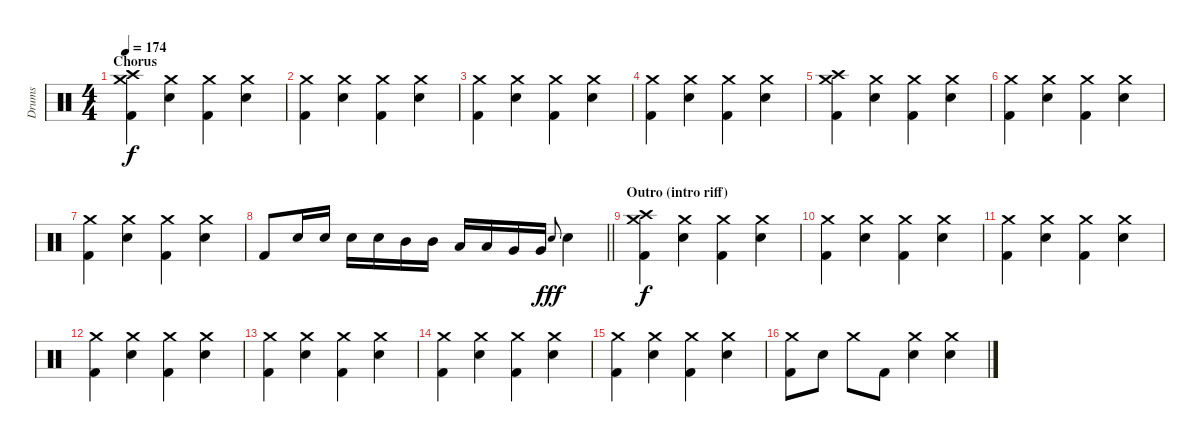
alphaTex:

\track ("Drums" "Drums") {instrument percussion}
\staff {score}
\articulation defaults
\ts (4 4)
\section ("" "Chorus")
\tempo 174
\clef neutral
\ks c
("Crash medium (hit)" "Crash high (hit)" "Kick (hit) 2").4{dy f} ("Crash medium (hit)" "Electric Snare (hit)").4 ("Crash medium (hit)" "Kick (hit) 2").4 ("Crash medium (hit)" "Electric Snare (hit)").4 |
("Crash medium (hit)" "Kick (hit) 2").4 ("Crash medium (hit)" "Electric Snare (hit)").4 ("Crash medium (hit)" "Kick (hit) 2").4 ("Crash medium (hit)" "Electric Snare (hit)").4 |
("Crash medium (hit)" "Kick (hit) 2").4 ("Crash medium (hit)" "Electric Snare (hit)").4 ("Crash medium (hit)" "Kick (hit) 2").4 ("Crash medium (hit)" "Electric Snare (hit)").4 |
("Crash medium (hit)" "Kick (hit) 2").4 ("Crash medium (hit)" "Electric Snare (hit)").4 ("Crash medium (hit)" "Kick (hit) 2").4 ("Crash medium (hit)" "Electric Snare (hit)").4 |
("Crash medium (hit)" "Crash high (hit)" "Kick (hit) 2").4 ("Crash medium (hit)" "Electric Snare (hit)").4 ("Crash medium (hit)" "Kick (hit) 2").4 ("Crash medium (hit)" "Electric Snare (hit)").4 |
("Crash medium (hit)" "Kick (hit) 2").4 ("Crash medium (hit)" "Electric Snare (hit)").4 ("Crash medium (hit)" "Kick (hit) 2").4 ("Crash medium (hit)" "Electric Snare (hit)").4 |
("Crash medium (hit)" "Kick (hit) 2").4 ("Crash medium (hit)" "Electric Snare (hit)").4 ("Crash medium (hit)" "Kick (hit) 2").4 ("Crash medium (hit)" "Electric Snare (hit)").4 |
\barLineRight lightlight "Kick (hit) 2".8 "Electric Snare (hit)".16 "Electric Snare (hit)".16 "Electric Snare (hit)".16 "Electric Snare (hit)".16 "Mid Tom (hit)".16 "Mid Tom (hit)".16 "Low Tom (hit)".16 "Low Tom (hit)".16 "Very Low Tom (hit)".16 "Very Low Tom (hit)".16 "Electric Snare (hit)".8{gr onbeat dy fff} "Electric Snare (hit)".4
|
\section ("" "Outro (intro riff)")
("Crash medium (hit)" "Crash high (hit)" "Kick (hit) 2").4{dy f} ("Crash medium (hit)" "Electric Snare (hit)").4 ("Crash medium (hit)" "Kick (hit) 2").4 ("Crash medium (hit)" "Electric Snare (hit)").4 |
("Crash medium (hit)" "Kick (hit) 2").4 ("Crash medium (hit)" "Electric Snare (hit)").4 ("Crash medium (hit)" "Kick (hit) 2").4 ("Crash medium (hit)" "Electric Snare (hit)").4 |
("Crash medium (hit)" "Kick (hit) 2").4 ("Crash medium (hit)" "Electric Snare (hit)").4 ("Crash medium (hit)" "Kick (hit) 2").4 ("Crash medium (hit)" "Electric Snare (hit)").4 |
("Crash medium (hit)" "Kick (hit) 2").4 ("Crash medium (hit)" "Electric Snare (hit)").4 ("Crash medium (hit)" "Kick (hit) 2").4 ("Crash medium (hit)" "Electric Snare (hit)").4 |
("Crash medium (hit)" "Kick (hit) 2").4 ("Crash medium (hit)" "Electric Snare (hit)").4 ("Crash medium (hit)" "Kick (hit) 2").4 ("Crash medium (hit)" "Electric Snare (hit)").4 |
("Crash medium (hit)" "Kick (hit) 2").4 ("Crash medium (hit)" "Electric Snare (hit)").4 ("Crash medium (hit)" "Kick (hit) 2").4 ("Crash medium (hit)" "Electric Snare (hit)").4 |
("Crash medium (hit)" "Kick (hit) 2").4 ("Crash medium (hit)" "Electric Snare (hit)").4 ("Crash medium (hit)" "Kick (hit) 2").4 ("Crash medium (hit)" "Electric Snare (hit)").4 |
("Crash medium (hit)" "Kick (hit) 2").8 "Electric Snare (hit)".8 "Crash medium (hit)".8 "Kick (hit) 2".8 ("Crash medium (hit)" "Electric Snare (hit)").4 ("Crash medium (hit)" "Electric Snare (hit)").4
